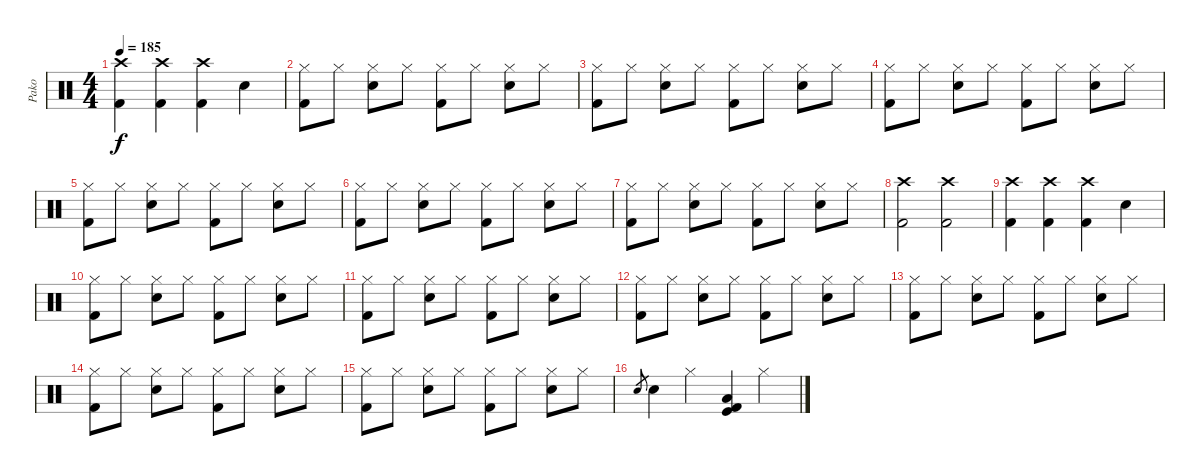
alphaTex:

\track ("Pako" "Pako") {instrument percussion}
\staff {score}
\articulation defaults
\ts (4 4)
\tempo 185
\clef neutral
\ks c
("Crash high (hit)" "Kick (hit) 2").4{dy f} ("Crash high (hit)" "Kick (hit) 2").4 ("Crash high (hit)" "Kick (hit) 2").4 "Snare (hit) 2".4 |
("Hi-Hat (closed)" "Kick (hit) 2").8 "Hi-Hat (closed)".8 ("Hi-Hat (closed)" "Snare (hit) 2").8 "Hi-Hat (closed)".8 ("Hi-Hat (closed)" "Kick (hit) 2").8 "Hi-Hat (closed)".8 ("Hi-Hat (closed)" "Snare (hit) 2").8 "Hi-Hat (closed)".8 |
("Hi-Hat (closed)" "Kick (hit) 2").8 "Hi-Hat (closed)".8 ("Hi-Hat (closed)" "Snare (hit) 2").8 "Hi-Hat (closed)".8 ("Hi-Hat (closed)" "Kick (hit) 2").8 "Hi-Hat (closed)".8 ("Hi-Hat (closed)" "Snare (hit) 2").8 "Hi-Hat (closed)".8 |
("Hi-Hat (closed)" "Kick (hit) 2").8 "Hi-Hat (closed)".8 ("Hi-Hat (closed)" "Snare (hit) 2").8 "Hi-Hat (closed)".8 ("Hi-Hat (closed)" "Kick (hit) 2").8 "Hi-Hat (closed)".8 ("Hi-Hat (closed)" "Snare (hit) 2").8 "Hi-Hat (closed)".8 |
("Hi-Hat (closed)" "Kick (hit) 2").8 "Hi-Hat (closed)".8 ("Hi-Hat (closed)" "Snare (hit) 2").8 "Hi-Hat (closed)".8 ("Hi-Hat (closed)" "Kick (hit) 2").8 "Hi-Hat (closed)".8 ("Hi-Hat (closed)" "Snare (hit) 2").8 "Hi-Hat (closed)".8 |
("Hi-Hat (closed)" "Kick (hit) 2").8 "Hi-Hat (closed)".8 ("Hi-Hat (closed)" "Snare (hit) 2").8 "Hi-Hat (closed)".8 ("Hi-Hat (closed)" "Kick (hit) 2").8 "Hi-Hat (closed)".8 ("Hi-Hat (closed)" "Snare (hit) 2").8 "Hi-Hat (closed)".8 |
("Hi-Hat (closed)" "Kick (hit) 2").8 "Hi-Hat (closed)".8 ("Hi-Hat (closed)" "Snare (hit) 2").8 "Hi-Hat (closed)".8 ("Hi-Hat (closed)" "Kick (hit) 2").8 "Hi-Hat (closed)".8 ("Hi-Hat (closed)" "Snare (hit) 2").8 "Hi-Hat (closed)".8 |
("Crash high (hit)" "Kick (hit) 2").2 ("Crash high (hit)" "Kick (hit) 2").2 |
("Crash high (hit)" "Kick (hit) 2").4 ("Crash high (hit)" "Kick (hit) 2").4 ("Crash high (hit)" "Kick (hit) 2").4 "Snare (hit) 2".4 |
("Hi-Hat (closed)" "Kick (hit) 2").8 "Hi-Hat (closed)".8 ("Hi-Hat (closed)" "Snare (hit) 2").8 "Hi-Hat (closed)".8 ("Hi-Hat (closed)" "Kick (hit) 2").8 "Hi-Hat (closed)".8 ("Hi-Hat (closed)" "Snare (hit) 2").8 "Hi-Hat (closed)".8 |
("Hi-Hat (closed)" "Kick (hit) 2").8 "Hi-Hat (closed)".8 ("Hi-Hat (closed)" "Snare (hit) 2").8 "Hi-Hat (closed)".8 ("Hi-Hat (closed)" "Kick (hit) 2").8 "Hi-Hat (closed)".8 ("Hi-Hat (closed)" "Snare (hit) 2").8 "Hi-Hat (closed)".8 |
("Hi-Hat (closed)" "Kick (hit) 2").8 "Hi-Hat (closed)".8 ("Hi-Hat (closed)" "Snare (hit) 2").8 "Hi-Hat (closed)".8 ("Hi-Hat (closed)" "Kick (hit) 2").8 "Hi-Hat (closed)".8 ("Hi-Hat (closed)" "Snare (hit) 2").8 "Hi-Hat (closed)".8 |
("Hi-Hat (closed)" "Kick (hit) 2").8 "Hi-Hat (closed)".8 ("Hi-Hat (closed)" "Snare (hit) 2").8 "Hi-Hat (closed)".8 ("Hi-Hat (closed)" "Kick (hit) 2").8 "Hi-Hat (closed)".8 ("Hi-Hat (closed)" "Snare (hit) 2").8 "Hi-Hat (closed)".8 |
("Hi-Hat (closed)" "Kick (hit) 2").8 "Hi-Hat (closed)".8 ("Hi-Hat (closed)" "Snare (hit) 2").8 "Hi-Hat (closed)".8 ("Hi-Hat (closed)" "Kick (hit) 2").8 "Hi-Hat (closed)".8 ("Hi-Hat (closed)" "Snare (hit) 2").8 "Hi-Hat (closed)".8 |
("Hi-Hat (closed)" "Kick (hit) 2").8 "Hi-Hat (closed)".8 ("Hi-Hat (closed)" "Snare (hit) 2").8 "Hi-Hat (closed)".8 ("Hi-Hat (closed)" "Kick (hit) 2").8 "Hi-Hat (closed)".8 ("Hi-Hat (closed)" "Snare (hit) 2").8 "Hi-Hat (closed)".8 |
"Snare (hit) 2".8{gr} "Snare (hit) 2".4 "Hi-Hat (closed)".4 ("Low Tom (hit)" "Kick (hit)" "Kick (hit) 2").4 "Hi-Hat (closed)".4
